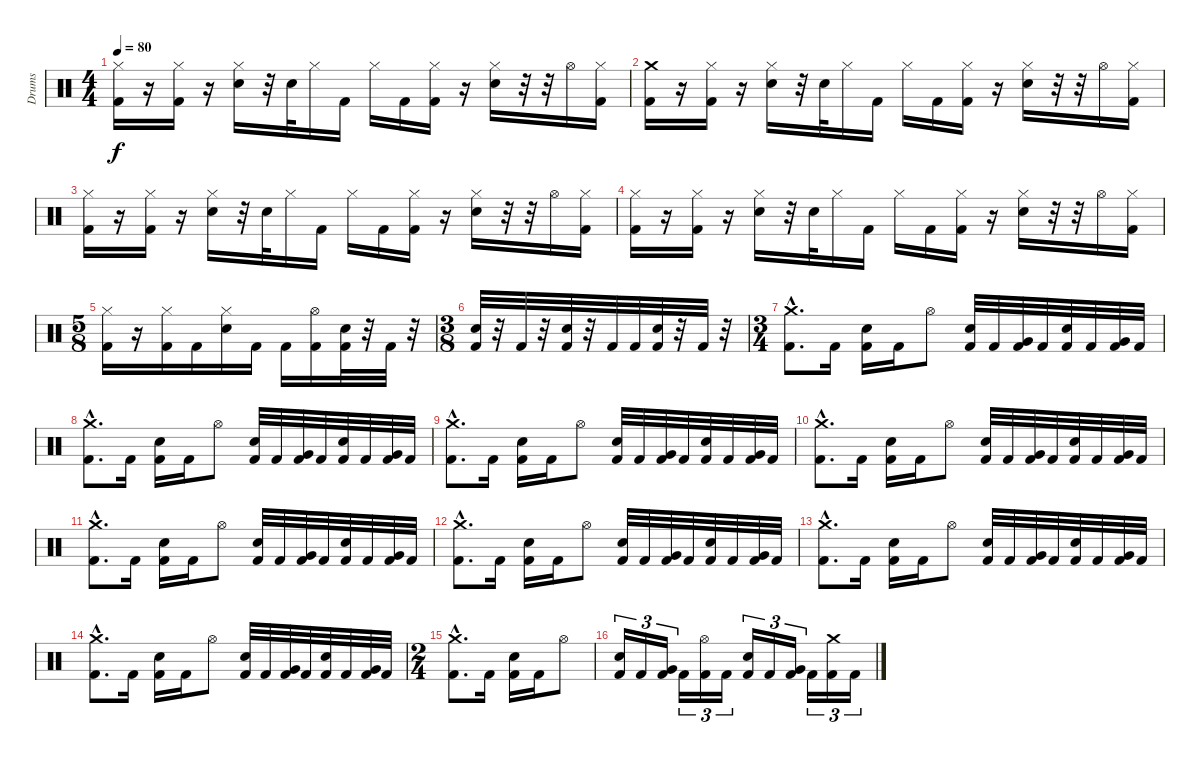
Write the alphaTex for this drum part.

\track ("Drums" "Drums") {instrument percussion}
\staff {score}
\articulation defaults
\ts (4 4)
\tempo 80
\clef neutral
\ks c
("Hi-Hat (closed)" "Kick (hit) 2").16{dy f} r.16 ("Hi-Hat (closed)" "Kick (hit) 2").16 r.16 ("Hi-Hat (closed)" "Snare (hit) 2").16 r.32 "Snare (hit) 2".32 "Hi-Hat (closed)".16 "Kick (hit) 2".16 "Hi-Hat (closed)".16 "Kick (hit) 2".16 ("Hi-Hat (closed)" "Kick (hit) 2").16 r.16 ("Hi-Hat (closed)" "Snare (hit) 2").16 r.32 r.32 "Hi-Hat (open)".16 ("Hi-Hat (closed)" "Kick (hit) 2").16 |
("Crash medium (hit)" "Kick (hit) 2").16 r.16 ("Hi-Hat (closed)" "Kick (hit) 2").16 r.16 ("Hi-Hat (closed)" "Snare (hit) 2").16 r.32 "Snare (hit) 2".32 "Hi-Hat (closed)".16 "Kick (hit) 2".16 "Hi-Hat (closed)".16 "Kick (hit) 2".16 ("Hi-Hat (closed)" "Kick (hit) 2").16 r.16 ("Hi-Hat (closed)" "Snare (hit) 2").16 r.32 r.32 "Hi-Hat (open)".16 ("Hi-Hat (closed)" "Kick (hit) 2").16 |
("Hi-Hat (closed)" "Kick (hit) 2").16 r.16 ("Hi-Hat (closed)" "Kick (hit) 2").16 r.16 ("Hi-Hat (closed)" "Snare (hit) 2").16 r.32 "Snare (hit) 2".32 "Hi-Hat (closed)".16 "Kick (hit) 2".16 "Hi-Hat (closed)".16 "Kick (hit) 2".16 ("Hi-Hat (closed)" "Kick (hit) 2").16 r.16 ("Hi-Hat (closed)" "Snare (hit) 2").16 r.32 r.32 "Hi-Hat (open)".16 ("Hi-Hat (closed)" "Kick (hit) 2").16 |
("Hi-Hat (closed)" "Kick (hit) 2").16 r.16 ("Hi-Hat (closed)" "Kick (hit) 2").16 r.16 ("Hi-Hat (closed)" "Snare (hit) 2").16 r.32 "Snare (hit) 2".32 "Hi-Hat (closed)".16 "Kick (hit) 2".16 "Hi-Hat (closed)".16 "Kick (hit) 2".16 ("Hi-Hat (closed)" "Kick (hit) 2").16 r.16 ("Hi-Hat (closed)" "Snare (hit) 2").16 r.32 r.32 "Hi-Hat (open)".16 ("Hi-Hat (closed)" "Kick (hit) 2").16 |
\ts (5 8)
("Hi-Hat (closed)" "Kick (hit) 2").16 r.16 ("Hi-Hat (closed)" "Kick (hit) 2").16 "Kick (hit) 2".16 ("Hi-Hat (closed)" "Snare (hit) 2").16 "Kick (hit) 2".16 "Kick (hit) 2".16 ("Hi-Hat (open)" "Kick (hit) 2").16 ("Snare (hit) 2" "Kick (hit) 2").32 r.32 "Kick (hit) 2".32 r.32 |
\ts (3 8)
("Snare (hit) 2" "Kick (hit) 2").32 r.32 "Kick (hit) 2".32 r.32 ("Snare (hit) 2" "Kick (hit) 2").32 r.32 "Kick (hit) 2".32 "Kick (hit) 2".32 ("Snare (hit) 2" "Kick (hit) 2").32 r.32 "Kick (hit) 2".32 r.32 |
\ts (3 4)
("Crash medium (hit)"{hac} "Kick (hit) 2"{hac}).8{d} "Kick (hit) 2".16 ("Snare (hit) 2" "Kick (hit) 2").16 "Kick (hit) 2".16 "Hi-Hat (open)".8 ("Snare (hit) 2" "Kick (hit) 2").32 "Kick (hit) 2".32 ("Very Low Tom (hit)" "Kick (hit) 2").32 "Kick (hit) 2".32 ("Snare (hit) 2" "Kick (hit) 2").32 "Kick (hit) 2".32 ("Very Low Tom (hit)" "Kick (hit) 2").32 "Kick (hit) 2".32 |
("Crash medium (hit)"{hac} "Kick (hit) 2"{hac}).8{d} "Kick (hit) 2".16 ("Snare (hit) 2" "Kick (hit) 2").16 "Kick (hit) 2".16 "Hi-Hat (open)".8 ("Snare (hit) 2" "Kick (hit) 2").32 "Kick (hit) 2".32 ("Very Low Tom (hit)" "Kick (hit) 2").32 "Kick (hit) 2".32 ("Snare (hit) 2" "Kick (hit) 2").32 "Kick (hit) 2".32 ("Very Low Tom (hit)" "Kick (hit) 2").32 "Kick (hit) 2".32 |
("Crash medium (hit)"{hac} "Kick (hit) 2"{hac}).8{d} "Kick (hit) 2".16 ("Snare (hit) 2" "Kick (hit) 2").16 "Kick (hit) 2".16 "Hi-Hat (open)".8 ("Snare (hit) 2" "Kick (hit) 2").32 "Kick (hit) 2".32 ("Very Low Tom (hit)" "Kick (hit) 2").32 "Kick (hit) 2".32 ("Snare (hit) 2" "Kick (hit) 2").32 "Kick (hit) 2".32 ("Very Low Tom (hit)" "Kick (hit) 2").32 "Kick (hit) 2".32 |
("Crash medium (hit)"{hac} "Kick (hit) 2"{hac}).8{d} "Kick (hit) 2".16 ("Snare (hit) 2" "Kick (hit) 2").16 "Kick (hit) 2".16 "Hi-Hat (open)".8 ("Snare (hit) 2" "Kick (hit) 2").32 "Kick (hit) 2".32 ("Very Low Tom (hit)" "Kick (hit) 2").32 "Kick (hit) 2".32 ("Snare (hit) 2" "Kick (hit) 2").32 "Kick (hit) 2".32 ("Very Low Tom (hit)" "Kick (hit) 2").32 "Kick (hit) 2".32 |
("Crash medium (hit)"{hac} "Kick (hit) 2"{hac}).8{d} "Kick (hit) 2".16 ("Snare (hit) 2" "Kick (hit) 2").16 "Kick (hit) 2".16 "Hi-Hat (open)".8 ("Snare (hit) 2" "Kick (hit) 2").32 "Kick (hit) 2".32 ("Very Low Tom (hit)" "Kick (hit) 2").32 "Kick (hit) 2".32 ("Snare (hit) 2" "Kick (hit) 2").32 "Kick (hit) 2".32 ("Very Low Tom (hit)" "Kick (hit) 2").32 "Kick (hit) 2".32 |
("Crash medium (hit)"{hac} "Kick (hit) 2"{hac}).8{d} "Kick (hit) 2".16 ("Snare (hit) 2" "Kick (hit) 2").16 "Kick (hit) 2".16 "Hi-Hat (open)".8 ("Snare (hit) 2" "Kick (hit) 2").32 "Kick (hit) 2".32 ("Very Low Tom (hit)" "Kick (hit) 2").32 "Kick (hit) 2".32 ("Snare (hit) 2" "Kick (hit) 2").32 "Kick (hit) 2".32 ("Very Low Tom (hit)" "Kick (hit) 2").32 "Kick (hit) 2".32 |
("Crash medium (hit)"{hac} "Kick (hit) 2"{hac}).8{d} "Kick (hit) 2".16 ("Snare (hit) 2" "Kick (hit) 2").16 "Kick (hit) 2".16 "Hi-Hat (open)".8 ("Snare (hit) 2" "Kick (hit) 2").32 "Kick (hit) 2".32 ("Very Low Tom (hit)" "Kick (hit) 2").32 "Kick (hit) 2".32 ("Snare (hit) 2" "Kick (hit) 2").32 "Kick (hit) 2".32 ("Very Low Tom (hit)" "Kick (hit) 2").32 "Kick (hit) 2".32 |
("Crash medium (hit)"{hac} "Kick (hit) 2"{hac}).8{d} "Kick (hit) 2".16 ("Snare (hit) 2" "Kick (hit) 2").16 "Kick (hit) 2".16 "Hi-Hat (open)".8 ("Snare (hit) 2" "Kick (hit) 2").32 "Kick (hit) 2".32 ("Very Low Tom (hit)" "Kick (hit) 2").32 "Kick (hit) 2".32 ("Snare (hit) 2" "Kick (hit) 2").32 "Kick (hit) 2".32 ("Very Low Tom (hit)" "Kick (hit) 2").32 "Kick (hit) 2".32 |
\ts (2 4)
("Crash medium (hit)"{hac} "Kick (hit) 2"{hac}).8{d} "Kick (hit) 2".16 ("Snare (hit) 2" "Kick (hit) 2").16 "Kick (hit) 2".16 "Hi-Hat (open)".8 |
("Snare (hit) 2" "Kick (hit) 2").16{tu (3 2)} "Kick (hit) 2".16{tu (3 2)} ("Very Low Tom (hit)" "Kick (hit) 2").16{tu (3 2)} "Kick (hit) 2".16{tu (3 2)} ("Hi-Hat (open)" "Kick (hit) 2").16{tu (3 2)} "Kick (hit) 2".16{tu (3 2)} ("Snare (hit) 2" "Kick (hit) 2").16{tu (3 2)} "Kick (hit) 2".16{tu (3 2)} ("Very Low Tom (hit)" "Kick (hit) 2").16{tu (3 2)} "Kick (hit) 2".16{tu (3 2)} ("Crash medium (hit)" "Kick (hit) 2").16{tu (3 2)} "Kick (hit) 2".16{tu (3 2)}
